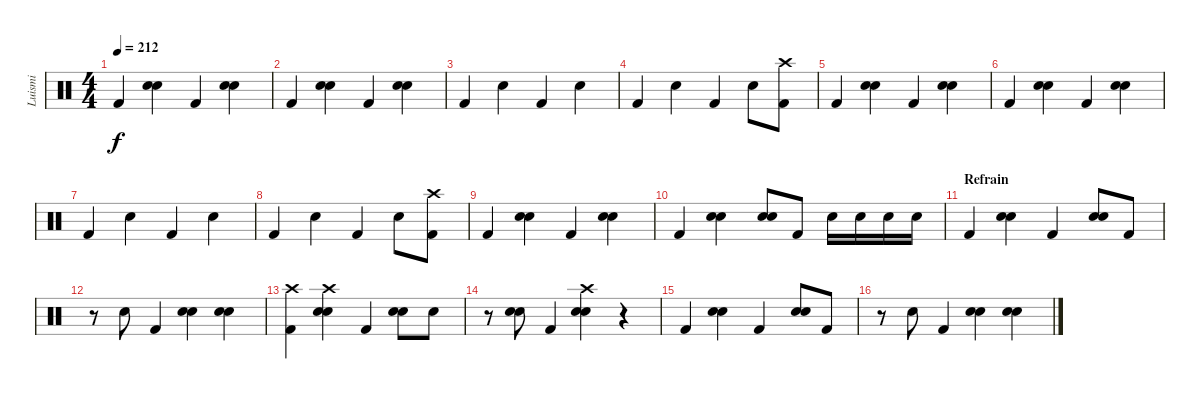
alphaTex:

\track ("Luismi" "Luismi") {instrument percussion}
\staff {score}
\articulation defaults
\ts (4 4)
\tempo 212
\clef neutral
\ks c "Kick (hit) 2".4{dy f}
("Electric Snare (hit)" "Snare (hit) 2").4 "Kick (hit) 2".4 ("Electric Snare (hit)" "Snare (hit) 2").4 |
"Kick (hit) 2".4 ("Electric Snare (hit)" "Snare (hit) 2").4 "Kick (hit) 2".4 ("Electric Snare (hit)" "Snare (hit) 2").4 |
"Kick (hit) 2".4 "Electric Snare (hit)".4 "Kick (hit) 2".4 "Electric Snare (hit)".4 |
"Kick (hit) 2".4 "Electric Snare (hit)".4 "Kick (hit) 2".4 "Electric Snare (hit)".8 ("Crash high (hit)" "Kick (hit) 2").8 |
"Kick (hit) 2".4 ("Electric Snare (hit)" "Snare (hit) 2").4 "Kick (hit) 2".4 ("Electric Snare (hit)" "Snare (hit) 2").4 |
"Kick (hit) 2".4 ("Electric Snare (hit)" "Snare (hit) 2").4 "Kick (hit) 2".4 ("Electric Snare (hit)" "Snare (hit) 2").4 |
"Kick (hit) 2".4 "Electric Snare (hit)".4 "Kick (hit) 2".4 "Electric Snare (hit)".4 |
"Kick (hit) 2".4 "Electric Snare (hit)".4 "Kick (hit) 2".4 "Electric Snare (hit)".8 ("Crash high (hit)" "Kick (hit) 2").8 |
"Kick (hit) 2".4 ("Electric Snare (hit)" "Snare (hit) 2").4 "Kick (hit) 2".4 ("Electric Snare (hit)" "Snare (hit) 2").4 |
"Kick (hit) 2".4 ("Electric Snare (hit)" "Snare (hit) 2").4 ("Electric Snare (hit)" "Snare (hit) 2").8 "Kick (hit) 2".8 "Electric Snare (hit)".16 "Electric Snare (hit)".16 "Electric Snare (hit)".16 "Electric Snare (hit)".16 |
\section ("" "Refrain")
"Kick (hit) 2".4 ("Electric Snare (hit)" "Snare (hit) 2").4 "Kick (hit) 2".4 ("Electric Snare (hit)" "Snare (hit) 2").8 "Kick (hit) 2".8 |
r.8 "Electric Snare (hit)".8 "Kick (hit) 2".4 ("Electric Snare (hit)" "Snare (hit) 2").4 ("Electric Snare (hit)" "Snare (hit) 2").4 |
("Crash high (hit)" "Kick (hit) 2").4 ("Crash high (hit)" "Electric Snare (hit)" "Snare (hit) 2").4 "Kick (hit) 2".4 ("Electric Snare (hit)" "Snare (hit) 2").8 "Snare (hit) 2".8 |
r.8 ("Electric Snare (hit)" "Snare (hit) 2").8 "Kick (hit) 2".4 ("Crash high (hit)" "Electric Snare (hit)" "Snare (hit) 2").4 r.4 |
"Kick (hit) 2".4 ("Electric Snare (hit)" "Snare (hit) 2").4 "Kick (hit) 2".4 ("Electric Snare (hit)" "Snare (hit) 2").8 "Kick (hit) 2".8 |
r.8 "Electric Snare (hit)".8 "Kick (hit) 2".4 ("Electric Snare (hit)" "Snare (hit) 2").4 ("Electric Snare (hit)" "Snare (hit) 2").4
